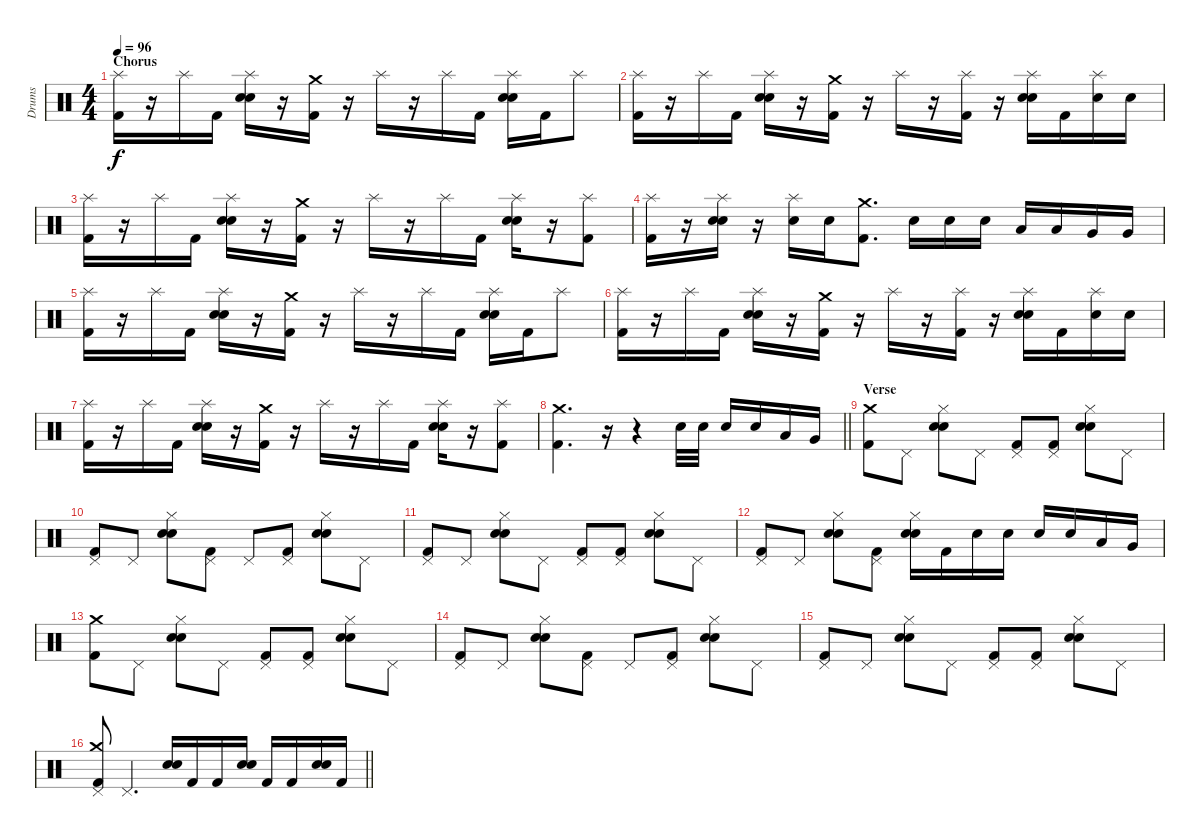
\track ("Drums" "Drums") {instrument percussion}
\staff {score}
\articulation defaults
\ts (4 4)
\section ("" "Chorus")
\tempo 96
\clef neutral
\ks c
("Splash (hit)" "Kick (hit) 2").16{dy f} r.16 "Splash (hit)".16 "Kick (hit) 2".16 ("Splash (hit)" "Electric Snare (hit)" "Snare (hit) 2").16 r.16 ("Crash medium (hit)" "Kick (hit) 2").16 r.16 "Splash (hit)".16 r.16 "Splash (hit)".16 "Kick (hit) 2".16 ("Splash (hit)" "Electric Snare (hit)" "Snare (hit) 2").16 "Kick (hit) 2".16 "Splash (hit)".8 |
("Splash (hit)" "Kick (hit) 2").16 r.16 "Splash (hit)".16 "Kick (hit) 2".16 ("Splash (hit)" "Electric Snare (hit)" "Snare (hit) 2").16 r.16 ("Crash medium (hit)" "Kick (hit) 2").16 r.16 "Splash (hit)".16 r.16 ("Splash (hit)" "Kick (hit) 2").16 r.16 ("Splash (hit)" "Electric Snare (hit)" "Snare (hit) 2").16 "Kick (hit) 2".16 ("Splash (hit)" "Electric Snare (hit)").16 "Electric Snare (hit)".16 |
("Splash (hit)" "Kick (hit) 2").16 r.16 "Splash (hit)".16 "Kick (hit) 2".16 ("Splash (hit)" "Electric Snare (hit)" "Snare (hit) 2").16 r.16 ("Crash medium (hit)" "Kick (hit) 2").16 r.16 "Splash (hit)".16 r.16 "Splash (hit)".16 "Kick (hit) 2".16 ("Splash (hit)" "Electric Snare (hit)" "Snare (hit) 2").16 r.16 ("Splash (hit)" "Kick (hit) 2").8 |
("Splash (hit)" "Kick (hit) 2").16 r.16 ("Splash (hit)" "Electric Snare (hit)" "Snare (hit) 2").16 r.16 ("Splash (hit)" "Electric Snare (hit)").16 "Electric Snare (hit)".16 ("Crash medium (hit)" "Kick (hit) 2").8{d} "Electric Snare (hit)".16 "Electric Snare (hit)".16 "Electric Snare (hit)".16 "Low Tom (hit)".16 "Low Tom (hit)".16 "Very Low Tom (hit)".16 "Very Low Tom (hit)".16 |
("Splash (hit)" "Kick (hit) 2").16 r.16 "Splash (hit)".16 "Kick (hit) 2".16 ("Splash (hit)" "Electric Snare (hit)" "Snare (hit) 2").16 r.16 ("Crash medium (hit)" "Kick (hit) 2").16 r.16 "Splash (hit)".16 r.16 "Splash (hit)".16 "Kick (hit) 2".16 ("Splash (hit)" "Electric Snare (hit)" "Snare (hit) 2").16 "Kick (hit) 2".16 "Splash (hit)".8 |
("Splash (hit)" "Kick (hit) 2").16 r.16 "Splash (hit)".16 "Kick (hit) 2".16 ("Splash (hit)" "Electric Snare (hit)" "Snare (hit) 2").16 r.16 ("Crash medium (hit)" "Kick (hit) 2").16 r.16 "Splash (hit)".16 r.16 ("Splash (hit)" "Kick (hit) 2").16 r.16 ("Splash (hit)" "Electric Snare (hit)" "Snare (hit) 2").16 "Kick (hit) 2".16 ("Splash (hit)" "Electric Snare (hit)").16 "Electric Snare (hit)".16 |
("Splash (hit)" "Kick (hit) 2").16 r.16 "Splash (hit)".16 "Kick (hit) 2".16 ("Splash (hit)" "Electric Snare (hit)" "Snare (hit) 2").16 r.16 ("Crash medium (hit)" "Kick (hit) 2").16 r.16 "Splash (hit)".16 r.16 "Splash (hit)".16 "Kick (hit) 2".16 ("Splash (hit)" "Electric Snare (hit)" "Snare (hit) 2").16 r.16 ("Splash (hit)" "Kick (hit) 2").8 |
\barLineRight lightlight
("Crash medium (hit)" "Kick (hit) 2").4{d} r.16 r.4 "Electric Snare (hit)".32 "Electric Snare (hit)".32 "Electric Snare (hit)".16 "Electric Snare (hit)".16 "Low Tom (hit)".16 "Very Low Tom (hit)".16 |
\section ("" "Verse")
("Crash medium (hit)" "Kick (hit) 2").8 "Pedal Hi-Hat (hit)".8 ("Hi-Hat (closed)" "Electric Snare (hit)" "Snare (hit) 2").8 "Pedal Hi-Hat (hit)".8 ("Pedal Hi-Hat (hit)" "Kick (hit) 2").8 ("Pedal Hi-Hat (hit)" "Kick (hit) 2").8 ("Hi-Hat (closed)" "Electric Snare (hit)" "Snare (hit) 2").8 "Pedal Hi-Hat (hit)".8 |
("Pedal Hi-Hat (hit)" "Kick (hit) 2").8 "Pedal Hi-Hat (hit)".8 ("Hi-Hat (closed)" "Electric Snare (hit)" "Snare (hit) 2").8 ("Pedal Hi-Hat (hit)" "Kick (hit) 2").8 "Pedal Hi-Hat (hit)".8 ("Pedal Hi-Hat (hit)" "Kick (hit) 2").8 ("Hi-Hat (closed)" "Electric Snare (hit)" "Snare (hit) 2").8 "Pedal Hi-Hat (hit)".8 |
("Pedal Hi-Hat (hit)" "Kick (hit) 2").8 "Pedal Hi-Hat (hit)".8 ("Hi-Hat (closed)" "Electric Snare (hit)" "Snare (hit) 2").8 "Pedal Hi-Hat (hit)".8 ("Pedal Hi-Hat (hit)" "Kick (hit) 2").8 ("Pedal Hi-Hat (hit)" "Kick (hit) 2").8 ("Hi-Hat (closed)" "Electric Snare (hit)" "Snare (hit) 2").8 "Pedal Hi-Hat (hit)".8 |
("Pedal Hi-Hat (hit)" "Kick (hit) 2").8 "Pedal Hi-Hat (hit)".8 ("Hi-Hat (closed)" "Electric Snare (hit)" "Snare (hit) 2").8 ("Pedal Hi-Hat (hit)" "Kick (hit) 2").8 ("Hi-Hat (closed)" "Electric Snare (hit)" "Snare (hit) 2").16 "Kick (hit) 2".16 "Electric Snare (hit)".16 "Electric Snare (hit)".16 "Electric Snare (hit)".16 "Electric Snare (hit)".16 "Low Tom (hit)".16 "Very Low Tom (hit)".16 |
("Crash medium (hit)" "Kick (hit) 2").8 "Pedal Hi-Hat (hit)".8 ("Hi-Hat (closed)" "Electric Snare (hit)" "Snare (hit) 2").8 "Pedal Hi-Hat (hit)".8 ("Pedal Hi-Hat (hit)" "Kick (hit) 2").8 ("Pedal Hi-Hat (hit)" "Kick (hit) 2").8 ("Hi-Hat (closed)" "Electric Snare (hit)" "Snare (hit) 2").8 "Pedal Hi-Hat (hit)".8 |
("Pedal Hi-Hat (hit)" "Kick (hit) 2").8 "Pedal Hi-Hat (hit)".8 ("Hi-Hat (closed)" "Electric Snare (hit)" "Snare (hit) 2").8 ("Pedal Hi-Hat (hit)" "Kick (hit) 2").8 "Pedal Hi-Hat (hit)".8 ("Pedal Hi-Hat (hit)" "Kick (hit) 2").8 ("Hi-Hat (closed)" "Electric Snare (hit)" "Snare (hit) 2").8 "Pedal Hi-Hat (hit)".8 |
("Pedal Hi-Hat (hit)" "Kick (hit) 2").8 "Pedal Hi-Hat (hit)".8 ("Hi-Hat (closed)" "Electric Snare (hit)" "Snare (hit) 2").8 "Pedal Hi-Hat (hit)".8 ("Pedal Hi-Hat (hit)" "Kick (hit) 2").8 ("Pedal Hi-Hat (hit)" "Kick (hit) 2").8 ("Hi-Hat (closed)" "Electric Snare (hit)" "Snare (hit) 2").8 "Pedal Hi-Hat (hit)".8 |
\barLineRight lightlight
("Crash medium (hit)" "Pedal Hi-Hat (hit)" "Kick (hit) 2").8 "Pedal Hi-Hat (hit)".4{d} ("Electric Snare (hit)" "Snare (hit) 2").16 "Kick (hit) 2".16 "Kick (hit) 2".16 ("Electric Snare (hit)" "Snare (hit) 2").16 "Kick (hit) 2".16 "Kick (hit) 2".16 ("Electric Snare (hit)" "Snare (hit) 2").16 "Kick (hit) 2".16
